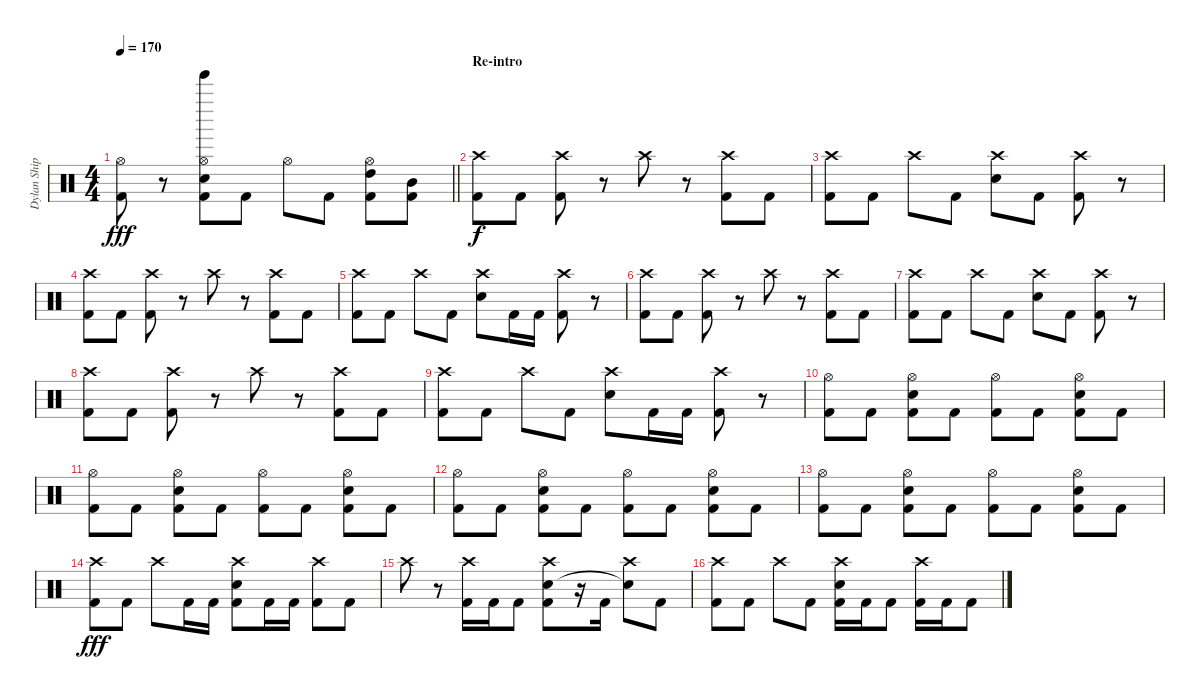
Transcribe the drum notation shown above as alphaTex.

\track ("Dylan Shippey" "Dylan Ship") {instrument percussion}
\staff {score}
\articulation defaults
\ts (4 4)
\tempo 170
\clef neutral
\barLineRight lightlight
\ks c
("Hi-Hat (open)" "Kick (hit) 2").8{dy fff} r.8 ("Tinkle Bell (hit)" "Electric Snare (hit)" "Hi-Hat (open)" "Kick (hit) 2").8 "Kick (hit) 2".8 "Hi-Hat (open)".8 "Kick (hit) 2".8 ("Hi-Hat (open)" "High Tom (hit)" "Kick (hit) 2").8 ("Mid Tom (hit)" "Kick (hit) 2").8 |
\section ("" "Re-intro")
("Crash high (hit)" "Kick (hit) 2").8{dy f} "Kick (hit) 2".8 ("Crash high (hit)" "Kick (hit) 2").8 r.8 "Crash high (hit)".8 r.8 ("Crash high (hit)" "Kick (hit) 2").8 "Kick (hit) 2".8 |
("Crash high (hit)" "Kick (hit) 2").8 "Kick (hit) 2".8 "Crash high (hit)".8 "Kick (hit) 2".8 ("Crash high (hit)" "Electric Snare (hit)").8 "Kick (hit) 2".8 ("Crash high (hit)" "Kick (hit) 2").8 r.8 |
("Crash high (hit)" "Kick (hit) 2").8 "Kick (hit) 2".8 ("Crash high (hit)" "Kick (hit) 2").8 r.8 "Crash high (hit)".8 r.8 ("Crash high (hit)" "Kick (hit) 2").8 "Kick (hit) 2".8 |
("Crash high (hit)" "Kick (hit) 2").8 "Kick (hit) 2".8 "Crash high (hit)".8 "Kick (hit) 2".8 ("Crash high (hit)" "Electric Snare (hit)").8 "Kick (hit) 2".16 "Kick (hit) 2".16 ("Crash high (hit)" "Kick (hit) 2").8 r.8 |
("Crash high (hit)" "Kick (hit) 2").8 "Kick (hit) 2".8 ("Crash high (hit)" "Kick (hit) 2").8 r.8 "Crash high (hit)".8 r.8 ("Crash high (hit)" "Kick (hit) 2").8 "Kick (hit) 2".8 |
("Crash high (hit)" "Kick (hit) 2").8 "Kick (hit) 2".8 "Crash high (hit)".8 "Kick (hit) 2".8 ("Crash high (hit)" "Electric Snare (hit)").8 "Kick (hit) 2".8 ("Crash high (hit)" "Kick (hit) 2").8 r.8 |
("Crash high (hit)" "Kick (hit) 2").8 "Kick (hit) 2".8 ("Crash high (hit)" "Kick (hit) 2").8 r.8 "Crash high (hit)".8 r.8 ("Crash high (hit)" "Kick (hit) 2").8 "Kick (hit) 2".8 |
("Crash high (hit)" "Kick (hit) 2").8 "Kick (hit) 2".8 "Crash high (hit)".8 "Kick (hit) 2".8 ("Crash high (hit)" "Electric Snare (hit)").8 "Kick (hit) 2".16 "Kick (hit) 2".16 ("Crash high (hit)" "Kick (hit) 2").8 r.8 |
("Hi-Hat (open)" "Kick (hit) 2").8 "Kick (hit) 2".8 ("Hi-Hat (open)" "Electric Snare (hit)" "Kick (hit) 2").8 "Kick (hit) 2".8 ("Hi-Hat (open)" "Kick (hit) 2").8 "Kick (hit) 2".8 ("Hi-Hat (open)" "Electric Snare (hit)" "Kick (hit) 2").8 "Kick (hit) 2".8 |
("Hi-Hat (open)" "Kick (hit) 2").8 "Kick (hit) 2".8 ("Hi-Hat (open)" "Electric Snare (hit)" "Kick (hit) 2").8 "Kick (hit) 2".8 ("Hi-Hat (open)" "Kick (hit) 2").8 "Kick (hit) 2".8 ("Hi-Hat (open)" "Electric Snare (hit)" "Kick (hit) 2").8 "Kick (hit) 2".8 |
("Hi-Hat (open)" "Kick (hit) 2").8 "Kick (hit) 2".8 ("Hi-Hat (open)" "Electric Snare (hit)" "Kick (hit) 2").8 "Kick (hit) 2".8 ("Hi-Hat (open)" "Kick (hit) 2").8 "Kick (hit) 2".8 ("Hi-Hat (open)" "Electric Snare (hit)" "Kick (hit) 2").8 "Kick (hit) 2".8 |
("Hi-Hat (open)" "Kick (hit) 2").8 "Kick (hit) 2".8 ("Hi-Hat (open)" "Electric Snare (hit)" "Kick (hit) 2").8 "Kick (hit) 2".8 ("Hi-Hat (open)" "Kick (hit) 2").8 "Kick (hit) 2".8 ("Hi-Hat (open)" "Electric Snare (hit)" "Kick (hit) 2").8 "Kick (hit) 2".8 |
("Crash high (hit)" "Kick (hit) 2").8{dy fff} "Kick (hit) 2".8 "Crash high (hit)".8 "Kick (hit) 2".16 "Kick (hit) 2".16 ("Crash high (hit)" "Electric Snare (hit)" "Kick (hit) 2").8 "Kick (hit) 2".16 "Kick (hit) 2".16 ("Crash high (hit)" "Kick (hit) 2").8 "Kick (hit) 2".8 |
"Crash high (hit)".8 r.8 ("Crash high (hit)" "Kick (hit) 2").16 "Kick (hit) 2".16 "Kick (hit) 2".8 ("Crash high (hit)" "Electric Snare (hit)" "Kick (hit) 2").8 r.16 "Kick (hit) 2".16 ("Crash high (hit)" "Snare (hit)"{t}).8 "Kick (hit) 2".8 |
("Crash high (hit)" "Kick (hit) 2").8 "Kick (hit) 2".8 "Crash high (hit)".8 "Kick (hit) 2".8 ("Crash high (hit)" "Electric Snare (hit)" "Kick (hit) 2").16 "Kick (hit) 2".16 "Kick (hit) 2".8 ("Crash high (hit)" "Kick (hit) 2").16 "Kick (hit) 2".16 "Kick (hit) 2".8
